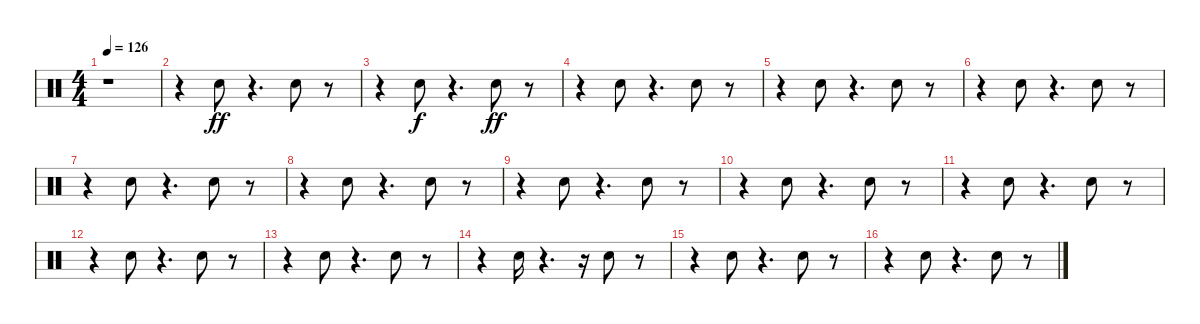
\track "" {instrument percussion}
\staff {score}
\articulation defaults
\ts (4 4)
\tempo 126
\clef neutral
\ks c
r.1{dy ff} |
r.4 "Snare (hit) 2".8 r.4{d} "Snare (hit) 2".8 r.8 |
r.4 "Snare (hit) 2".8{dy f} r.4{d} "Snare (hit) 2".8{dy ff} r.8 |
r.4 "Snare (hit) 2".8 r.4{d} "Snare (hit) 2".8 r.8 |
r.4 "Snare (hit) 2".8 r.4{d} "Snare (hit) 2".8 r.8 |
r.4 "Snare (hit) 2".8 r.4{d} "Snare (hit) 2".8 r.8 |
r.4 "Snare (hit) 2".8 r.4{d} "Snare (hit) 2".8 r.8 |
r.4 "Snare (hit) 2".8 r.4{d} "Snare (hit) 2".8 r.8 |
r.4 "Snare (hit) 2".8 r.4{d} "Snare (hit) 2".8 r.8 |
r.4 "Snare (hit) 2".8 r.4{d} "Snare (hit) 2".8 r.8 |
r.4 "Snare (hit) 2".8 r.4{d} "Snare (hit) 2".8 r.8 |
r.4 "Snare (hit) 2".8 r.4{d} "Snare (hit) 2".8 r.8 |
r.4 "Snare (hit) 2".8 r.4{d} "Snare (hit) 2".8 r.8 |
r.4 "Snare (hit) 2".16 r.4{d} r.16 "Snare (hit) 2".8 r.8 |
r.4 "Snare (hit) 2".8 r.4{d} "Snare (hit) 2".8 r.8 |
r.4 "Snare (hit) 2".8 r.4{d} "Snare (hit) 2".8 r.8
